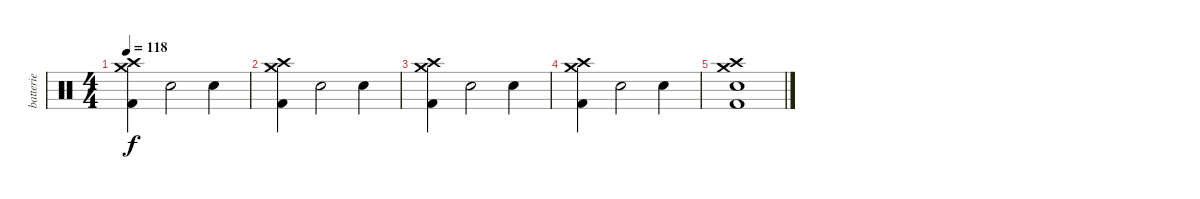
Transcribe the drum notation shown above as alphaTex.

\track ("batterie" "batterie") {instrument percussion}
\staff {score}
\articulation defaults
\ts (4 4)
\tempo 118
\clef neutral
\ks c
("Crash high (hit)" "Crash medium (hit)" "Kick (hit) 2").4{dy f} "Electric Snare (hit)".2 "Electric Snare (hit)".4 |
("Crash high (hit)" "Crash medium (hit)" "Kick (hit) 2").4 "Electric Snare (hit)".2 "Electric Snare (hit)".4 |
("Crash high (hit)" "Crash medium (hit)" "Kick (hit) 2").4 "Electric Snare (hit)".2 "Electric Snare (hit)".4 |
("Crash high (hit)" "Crash medium (hit)" "Kick (hit) 2").4 "Electric Snare (hit)".2 "Electric Snare (hit)".4 |
("Crash high (hit)" "Crash medium (hit)" "Electric Snare (hit)" "Kick (hit) 2").1
